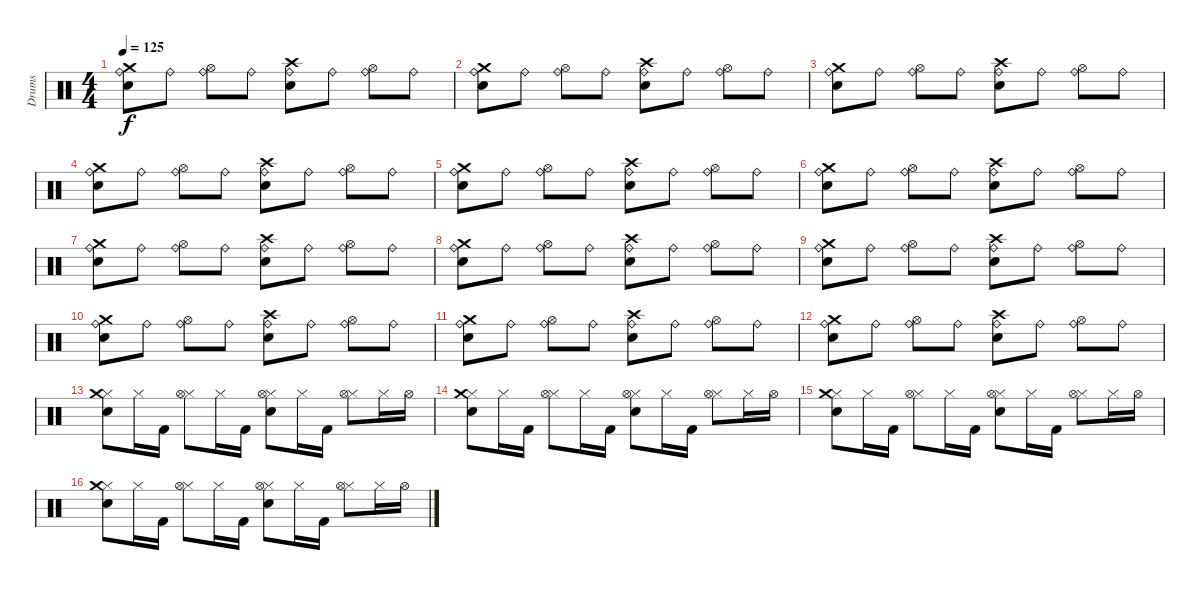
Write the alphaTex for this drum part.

\track ("Drums" "Drums") {instrument percussion}
\staff {score}
\articulation defaults
\ts (4 4)
\tempo 125
\clef neutral
\ks c
("Ride (bell)" "Snare (hit) 2" "Crash medium (hit)").8{dy f} "Ride (bell)".8 ("Ride (bell)" "Hi-Hat (open)").8 "Ride (bell)".8 ("Ride (bell)" "Snare (hit) 2" "Crash high (hit)").8 "Ride (bell)".8 ("Ride (bell)" "Hi-Hat (open)").8 "Ride (bell)".8 |
("Ride (bell)" "Snare (hit) 2" "Crash medium (hit)").8 "Ride (bell)".8 ("Ride (bell)" "Hi-Hat (open)").8 "Ride (bell)".8 ("Ride (bell)" "Snare (hit) 2" "Crash high (hit)").8 "Ride (bell)".8 ("Ride (bell)" "Hi-Hat (open)").8 "Ride (bell)".8 |
("Ride (bell)" "Snare (hit) 2" "Crash medium (hit)").8 "Ride (bell)".8 ("Ride (bell)" "Hi-Hat (open)").8 "Ride (bell)".8 ("Ride (bell)" "Snare (hit) 2" "Crash high (hit)").8 "Ride (bell)".8 ("Ride (bell)" "Hi-Hat (open)").8 "Ride (bell)".8 |
("Ride (bell)" "Snare (hit) 2" "Crash medium (hit)").8 "Ride (bell)".8 ("Ride (bell)" "Hi-Hat (open)").8 "Ride (bell)".8 ("Ride (bell)" "Snare (hit) 2" "Crash high (hit)").8 "Ride (bell)".8 ("Ride (bell)" "Hi-Hat (open)").8 "Ride (bell)".8 |
("Ride (bell)" "Snare (hit) 2" "Crash medium (hit)").8 "Ride (bell)".8 ("Ride (bell)" "Hi-Hat (open)").8 "Ride (bell)".8 ("Ride (bell)" "Snare (hit) 2" "Crash high (hit)").8 "Ride (bell)".8 ("Ride (bell)" "Hi-Hat (open)").8 "Ride (bell)".8 |
("Ride (bell)" "Snare (hit) 2" "Crash medium (hit)").8 "Ride (bell)".8 ("Ride (bell)" "Hi-Hat (open)").8 "Ride (bell)".8 ("Ride (bell)" "Snare (hit) 2" "Crash high (hit)").8 "Ride (bell)".8 ("Ride (bell)" "Hi-Hat (open)").8 "Ride (bell)".8 |
("Ride (bell)" "Snare (hit) 2" "Crash medium (hit)").8 "Ride (bell)".8 ("Ride (bell)" "Hi-Hat (open)").8 "Ride (bell)".8 ("Ride (bell)" "Snare (hit) 2" "Crash high (hit)").8 "Ride (bell)".8 ("Ride (bell)" "Hi-Hat (open)").8 "Ride (bell)".8 |
("Ride (bell)" "Snare (hit) 2" "Crash medium (hit)").8 "Ride (bell)".8 ("Ride (bell)" "Hi-Hat (open)").8 "Ride (bell)".8 ("Ride (bell)" "Snare (hit) 2" "Crash high (hit)").8 "Ride (bell)".8 ("Ride (bell)" "Hi-Hat (open)").8 "Ride (bell)".8 |
("Ride (bell)" "Snare (hit) 2" "Crash medium (hit)").8 "Ride (bell)".8 ("Ride (bell)" "Hi-Hat (open)").8 "Ride (bell)".8 ("Ride (bell)" "Snare (hit) 2" "Crash high (hit)").8 "Ride (bell)".8 ("Ride (bell)" "Hi-Hat (open)").8 "Ride (bell)".8 |
("Ride (bell)" "Snare (hit) 2" "Crash medium (hit)").8 "Ride (bell)".8 ("Ride (bell)" "Hi-Hat (open)").8 "Ride (bell)".8 ("Ride (bell)" "Snare (hit) 2" "Crash high (hit)").8 "Ride (bell)".8 ("Ride (bell)" "Hi-Hat (open)").8 "Ride (bell)".8 |
("Ride (bell)" "Snare (hit) 2" "Crash medium (hit)").8 "Ride (bell)".8 ("Ride (bell)" "Hi-Hat (open)").8 "Ride (bell)".8 ("Ride (bell)" "Snare (hit) 2" "Crash high (hit)").8 "Ride (bell)".8 ("Ride (bell)" "Hi-Hat (open)").8 "Ride (bell)".8 |
("Ride (bell)" "Snare (hit) 2" "Crash medium (hit)").8 "Ride (bell)".8 ("Ride (bell)" "Hi-Hat (open)").8 "Ride (bell)".8 ("Ride (bell)" "Snare (hit) 2" "Crash high (hit)").8 "Ride (bell)".8 ("Ride (bell)" "Hi-Hat (open)").8 "Ride (bell)".8 |
("Hi-Hat (closed)" "Snare (hit) 2" "Crash medium (hit)").8 "Hi-Hat (closed)".16 "Kick (hit) 2".16 ("Hi-Hat (closed)" "Hi-Hat (open)").8 "Hi-Hat (closed)".16 "Kick (hit) 2".16 ("Hi-Hat (closed)" "Hi-Hat (open)" "Snare (hit) 2").8 "Hi-Hat (closed)".16 "Kick (hit) 2".16 ("Hi-Hat (closed)" "Hi-Hat (open)").8 "Hi-Hat (closed)".16 "Hi-Hat (open)".16 |
("Hi-Hat (closed)" "Snare (hit) 2" "Crash medium (hit)").8 "Hi-Hat (closed)".16 "Kick (hit) 2".16 ("Hi-Hat (closed)" "Hi-Hat (open)").8 "Hi-Hat (closed)".16 "Kick (hit) 2".16 ("Hi-Hat (closed)" "Hi-Hat (open)" "Snare (hit) 2").8 "Hi-Hat (closed)".16 "Kick (hit) 2".16 ("Hi-Hat (closed)" "Hi-Hat (open)").8 "Hi-Hat (closed)".16 "Hi-Hat (open)".16 |
("Hi-Hat (closed)" "Snare (hit) 2" "Crash medium (hit)").8 "Hi-Hat (closed)".16 "Kick (hit) 2".16 ("Hi-Hat (closed)" "Hi-Hat (open)").8 "Hi-Hat (closed)".16 "Kick (hit) 2".16 ("Hi-Hat (closed)" "Hi-Hat (open)" "Snare (hit) 2").8 "Hi-Hat (closed)".16 "Kick (hit) 2".16 ("Hi-Hat (closed)" "Hi-Hat (open)").8 "Hi-Hat (closed)".16 "Hi-Hat (open)".16 |
("Hi-Hat (closed)" "Snare (hit) 2" "Crash medium (hit)").8 "Hi-Hat (closed)".16 "Kick (hit) 2".16 ("Hi-Hat (closed)" "Hi-Hat (open)").8 "Hi-Hat (closed)".16 "Kick (hit) 2".16 ("Hi-Hat (closed)" "Hi-Hat (open)" "Snare (hit) 2").8 "Hi-Hat (closed)".16 "Kick (hit) 2".16 ("Hi-Hat (closed)" "Hi-Hat (open)").8 "Hi-Hat (closed)".16 "Hi-Hat (open)".16
